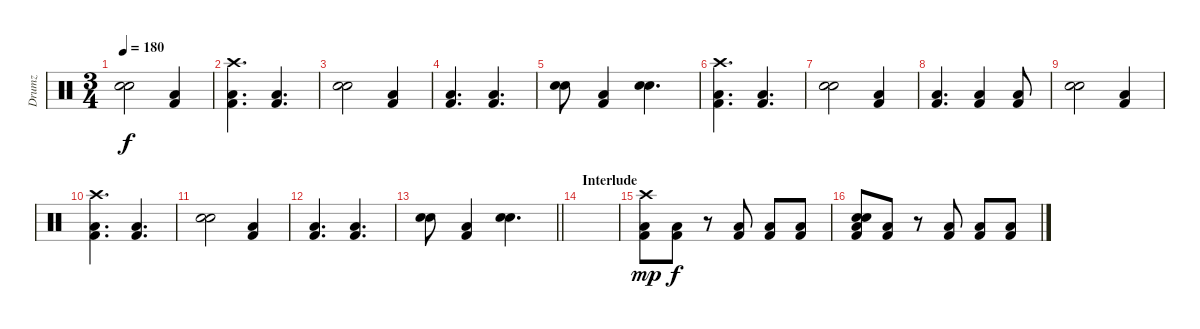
\track ("Drumz" "Drumz") {instrument percussion}
\staff {score}
\articulation defaults
\ts (3 4)
\tempo 180
\clef neutral
\ks c
("Electric Snare (hit)" "Electric Snare (hit)").2{dy f} ("Kick (hit) 2" "Low Floor Tom (hit)").4 |
("Kick (hit) 2" "Low Floor Tom (hit)" "Crash high (hit)").4{d} ("Kick (hit) 2" "Low Floor Tom (hit)").4{d} |
("Electric Snare (hit)" "Electric Snare (hit)").2 ("Kick (hit) 2" "Low Floor Tom (hit)").4 |
("Kick (hit) 2" "Low Floor Tom (hit)").4{d} ("Kick (hit) 2" "Low Floor Tom (hit)").4{d} |
("Electric Snare (hit)" "Electric Snare (hit)").8 ("Kick (hit) 2" "Low Floor Tom (hit)").4 ("Electric Snare (hit)" "Electric Snare (hit)").4{d} |
("Kick (hit) 2" "Low Floor Tom (hit)" "Crash high (hit)").4{d} ("Kick (hit) 2" "Low Floor Tom (hit)").4{d} |
("Electric Snare (hit)" "Electric Snare (hit)").2 ("Kick (hit) 2" "Low Floor Tom (hit)").4 |
("Kick (hit) 2" "Low Floor Tom (hit)").4{d} ("Kick (hit) 2" "Low Floor Tom (hit)").4 ("Kick (hit) 2" "Low Floor Tom (hit)").8 |
("Electric Snare (hit)" "Electric Snare (hit)").2 ("Kick (hit) 2" "Low Floor Tom (hit)").4 |
("Kick (hit) 2" "Low Floor Tom (hit)" "Crash high (hit)").4{d} ("Kick (hit) 2" "Low Floor Tom (hit)").4{d} |
("Electric Snare (hit)" "Electric Snare (hit)").2 ("Kick (hit) 2" "Low Floor Tom (hit)").4 |
("Kick (hit) 2" "Low Floor Tom (hit)").4{d} ("Kick (hit) 2" "Low Floor Tom (hit)").4{d} |
\barLineRight lightlight
("Electric Snare (hit)" "Electric Snare (hit)").8 ("Kick (hit) 2" "Low Floor Tom (hit)").4 ("Electric Snare (hit)" "Electric Snare (hit)").4{d} |
\section ("" "Interlude")
|
("Kick (hit) 2" "Low Floor Tom (hit)" "Crash high (hit)").8{dy mp} ("Low Floor Tom (hit)" "Kick (hit) 2").8{dy f} r.8 ("Low Floor Tom (hit)" "Kick (hit) 2").8 ("Low Floor Tom (hit)" "Kick (hit) 2").8 ("Low Floor Tom (hit)" "Kick (hit) 2").8 |
("Low Floor Tom (hit)" "Kick (hit) 2" "Electric Snare (hit)" "Electric Snare (hit)").8 ("Low Floor Tom (hit)" "Kick (hit) 2").8 r.8 ("Low Floor Tom (hit)" "Kick (hit) 2").8 ("Low Floor Tom (hit)" "Kick (hit) 2").8 ("Low Floor Tom (hit)" "Kick (hit) 2").8
